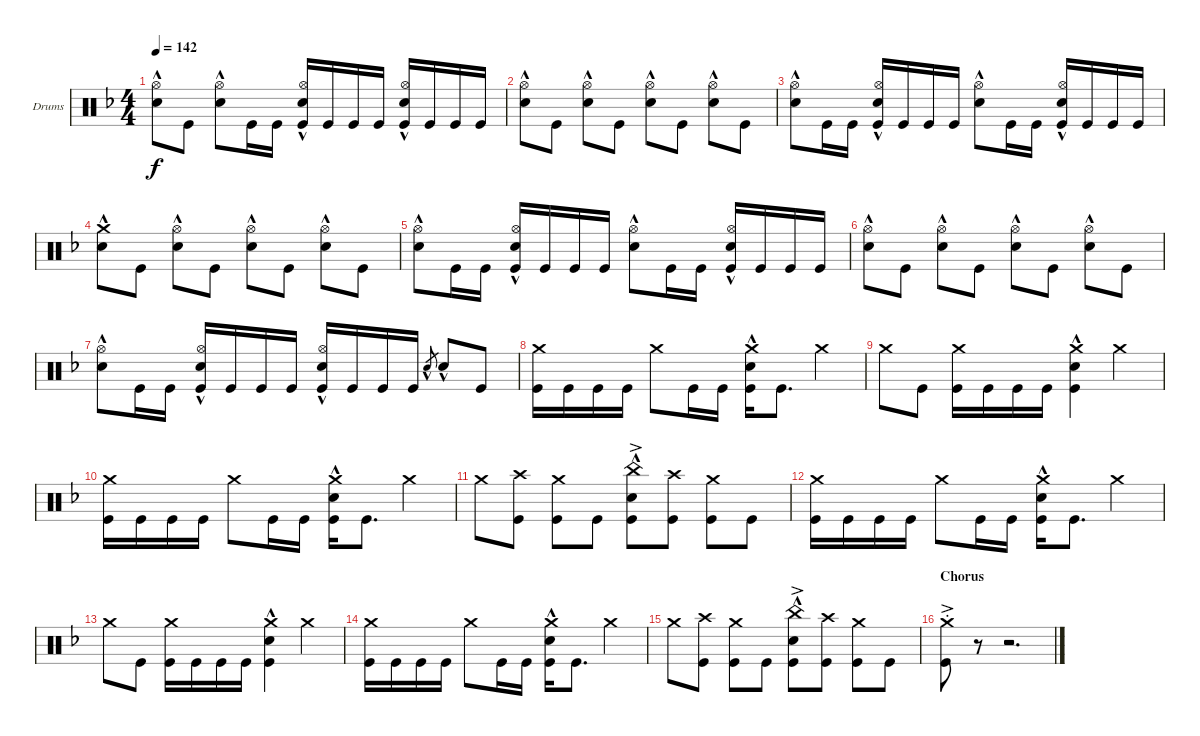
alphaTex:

\bracketExtendMode groupsimilarinstruments
\firstSystemTrackNameOrientation horizontal
\otherSystemsTrackNameOrientation horizontal
\track ("Drumkit" "Drums") {instrument percussion}
\staff {score}
\articulation defaults
\ts (4 4)
\tempo 142
\clef neutral
\scale
0.333333
\ks dminor
("Snare (hit) 2"{hac} "Hi-Hat (open)").8{dy f} "Kick (hit)".8 ("Snare (hit) 2"{hac} "Hi-Hat (open)").8 "Kick (hit)".16 "Kick (hit)".16 ("Kick (hit)" "Hi-Hat (open)" "Snare (hit) 2"{hac}).16 "Kick (hit)".16 "Kick (hit)".16 "Kick (hit)".16 ("Kick (hit)" "Hi-Hat (open)" "Snare (hit) 2"{hac}).16 "Kick (hit)".16 "Kick (hit)".16 "Kick (hit)".16 |
\scale
0.333333 ("Snare (hit) 2"{hac} "Hi-Hat (open)").8 "Kick (hit)".8 ("Snare (hit) 2"{hac} "Hi-Hat (open)").8 "Kick (hit)".8 ("Snare (hit) 2"{hac} "Hi-Hat (open)").8 "Kick (hit)".8 ("Snare (hit) 2"{hac} "Hi-Hat (open)").8 "Kick (hit)".8 |
\scale
0.333333 ("Snare (hit) 2"{hac} "Hi-Hat (open)").8 "Kick (hit)".16 "Kick (hit)".16 ("Kick (hit)" "Hi-Hat (open)" "Snare (hit) 2"{hac}).16 "Kick (hit)".16 "Kick (hit)".16 "Kick (hit)".16 ("Snare (hit) 2"{hac} "Hi-Hat (open)").8 "Kick (hit)".16 "Kick (hit)".16 ("Kick (hit)" "Hi-Hat (open)" "Snare (hit) 2"{hac}).16 "Kick (hit)".16 "Kick (hit)".16 "Kick (hit)".16 |
\scale
0.333333 ("Snare (hit) 2"{hac} "Crash medium (hit)").8 "Kick (hit)".8 ("Snare (hit) 2"{hac} "Hi-Hat (open)").8 "Kick (hit)".8 ("Snare (hit) 2"{hac} "Hi-Hat (open)").8 "Kick (hit)".8 ("Snare (hit) 2"{hac} "Hi-Hat (open)").8 "Kick (hit)".8 |
\scale
0.333333 ("Snare (hit) 2"{hac} "Hi-Hat (open)").8 "Kick (hit)".16 "Kick (hit)".16 ("Kick (hit)" "Hi-Hat (open)" "Snare (hit) 2"{hac}).16 "Kick (hit)".16 "Kick (hit)".16 "Kick (hit)".16 ("Snare (hit) 2"{hac} "Hi-Hat (open)").8 "Kick (hit)".16 "Kick (hit)".16 ("Kick (hit)" "Hi-Hat (open)" "Snare (hit) 2"{hac}).16 "Kick (hit)".16 "Kick (hit)".16 "Kick (hit)".16 |
\scale
0.333333 ("Snare (hit) 2"{hac} "Hi-Hat (open)").8 "Kick (hit)".8 ("Snare (hit) 2"{hac} "Hi-Hat (open)").8 "Kick (hit)".8 ("Snare (hit) 2"{hac} "Hi-Hat (open)").8 "Kick (hit)".8 ("Snare (hit) 2"{hac} "Hi-Hat (open)").8 "Kick (hit)".8 |
\scale
0.333333 ("Snare (hit) 2"{hac} "Hi-Hat (open)").8 "Kick (hit)".16 "Kick (hit)".16 ("Kick (hit)" "Hi-Hat (open)" "Snare (hit) 2"{hac}).16 "Kick (hit)".16 "Kick (hit)".16 "Kick (hit)".16 ("Snare (hit) 2"{hac} "Hi-Hat (open)" "Kick (hit)").16 "Kick (hit)".16 "Kick (hit)".16 "Kick (hit)".16 "Snare (hit) 2"{hac}.8{gr} "Snare (hit) 2"{hac}.8 "Kick (hit)".8 |
\scale
0.333333 ("Kick (hit)" "Crash medium (hit)").16 "Kick (hit)".16 "Kick (hit)".16 "Kick (hit)".16 "Crash medium (hit)".8 "Kick (hit)".16 "Kick (hit)".16 ("Kick (hit)" "Snare (hit) 2"{hac} "Crash medium (hit)").16 "Kick (hit)".8{d} "Crash medium (hit)".4 |
\scale
0.333333 "Crash medium (hit)".8 "Kick (hit)".8 ("Kick (hit)" "Crash medium (hit)").16 "Kick (hit)".16 "Kick (hit)".16 "Kick (hit)".16 ("Kick (hit)" "Crash medium (hit)" "Snare (hit) 2"{hac}).4 "Crash medium (hit)".4 |
\scale
0.333333 ("Kick (hit)" "Crash medium (hit)").16 "Kick (hit)".16 "Kick (hit)".16 "Kick (hit)".16 "Crash medium (hit)".8 "Kick (hit)".16 "Kick (hit)".16 ("Kick (hit)" "Snare (hit) 2"{hac} "Crash medium (hit)").16 "Kick (hit)".8{d} "Crash medium (hit)".4 |
\scale
0.333333 "Crash medium (hit)".8 ("Crash high (hit)" "Kick (hit)").8 ("Crash medium (hit)" "Kick (hit)").8 "Kick (hit)".8 ("Kick (hit)" "Snare (hit) 2"{hac} "China (hit)"{ac}).8 ("Kick (hit)" "Crash high (hit)").8 ("Kick (hit)" "Crash medium (hit)").8 "Kick (hit)".8 |
("Kick (hit)" "Crash medium (hit)").16 "Kick (hit)".16 "Kick (hit)".16 "Kick (hit)".16 "Crash medium (hit)".8 "Kick (hit)".16 "Kick (hit)".16 ("Kick (hit)" "Snare (hit) 2"{hac} "Crash medium (hit)").16 "Kick (hit)".8{d} "Crash medium (hit)".4 |
"Crash medium (hit)".8 "Kick (hit)".8 ("Kick (hit)" "Crash medium (hit)").16 "Kick (hit)".16 "Kick (hit)".16 "Kick (hit)".16 ("Kick (hit)" "Crash medium (hit)" "Snare (hit) 2"{hac}).4 "Crash medium (hit)".4 |
("Kick (hit)" "Crash medium (hit)").16 "Kick (hit)".16 "Kick (hit)".16 "Kick (hit)".16 "Crash medium (hit)".8 "Kick (hit)".16 "Kick (hit)".16 ("Kick (hit)" "Snare (hit) 2"{hac} "Crash medium (hit)").16 "Kick (hit)".8{d} "Crash medium (hit)".4 |
"Crash medium (hit)".8 ("Crash high (hit)" "Kick (hit)").8 ("Crash medium (hit)" "Kick (hit)").8 "Kick (hit)".8 ("Kick (hit)" "Snare (hit) 2"{hac} "China (hit)"{ac}).8 ("Kick (hit)" "Crash high (hit)").8 ("Kick (hit)" "Crash medium (hit)").8 "Kick (hit)".8 |
\section ("" "Chorus")
("Kick (hit)" "Crash medium (hit)"{ac st}).8 r.8 r.2{d}
